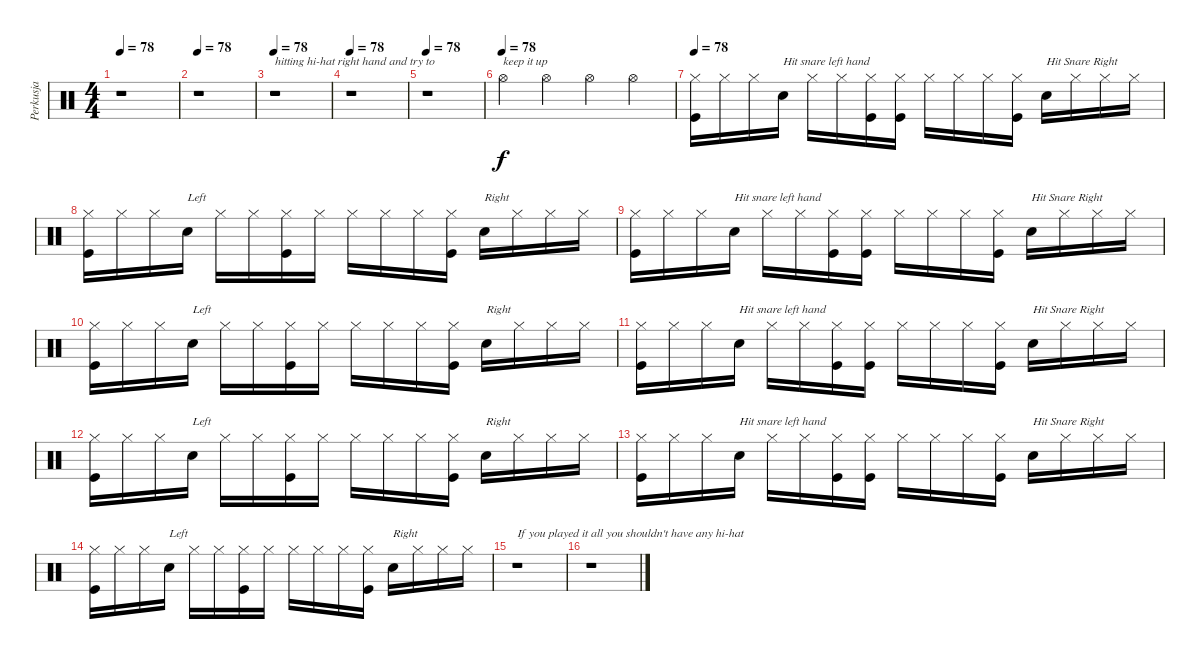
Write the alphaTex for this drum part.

\track ("Perkusja" "Perkusja") {instrument percussion}
\staff {score}
\articulation defaults
\ts (4 4)
\tempo 78
\clef neutral
\ks c
r.1{dy f} |
\tempo 78
r.1 |
\tempo 78
r.1{txt "hitting hi-hat right hand and try to "} |
\tempo 78
r.1 |
\tempo 78
r.1 |
\tempo (78)
"Hi-Hat (open)".4{txt "keep it up"} "Hi-Hat (open)".4 "Hi-Hat (open)".4 "Hi-Hat (open)".4 |
\tempo 78
("Hi-Hat (closed)" "Kick (hit)").16 "Hi-Hat (closed)".16 "Hi-Hat (closed)".16 "Electric Snare (hit)".16{txt "Hit snare left hand"} "Hi-Hat (closed)".16 "Hi-Hat (closed)".16 ("Hi-Hat (closed)" "Kick (hit)").16 ("Hi-Hat (closed)" "Kick (hit)").16 "Hi-Hat (closed)".16 "Hi-Hat (closed)".16 "Hi-Hat (closed)".16 ("Hi-Hat (closed)" "Kick (hit)").16 "Electric Snare (hit)".16{txt "Hit Snare Right"} "Hi-Hat (closed)".16 "Hi-Hat (closed)".16 "Hi-Hat (closed)".16 |
("Hi-Hat (closed)" "Kick (hit)").16 "Hi-Hat (closed)".16 "Hi-Hat (closed)".16 "Electric Snare (hit)".16{txt "Left"} "Hi-Hat (closed)".16 "Hi-Hat (closed)".16 ("Hi-Hat (closed)" "Kick (hit)").16 "Hi-Hat (closed)".16 "Hi-Hat (closed)".16 "Hi-Hat (closed)".16 "Hi-Hat (closed)".16 ("Hi-Hat (closed)" "Kick (hit)").16 "Electric Snare (hit)".16{txt "Right"} "Hi-Hat (closed)".16 "Hi-Hat (closed)".16 "Hi-Hat (closed)".16 |
("Hi-Hat (closed)" "Kick (hit)").16 "Hi-Hat (closed)".16 "Hi-Hat (closed)".16 "Electric Snare (hit)".16{txt "Hit snare left hand"} "Hi-Hat (closed)".16 "Hi-Hat (closed)".16 ("Hi-Hat (closed)" "Kick (hit)").16 ("Hi-Hat (closed)" "Kick (hit)").16 "Hi-Hat (closed)".16 "Hi-Hat (closed)".16 "Hi-Hat (closed)".16 ("Hi-Hat (closed)" "Kick (hit)").16 "Electric Snare (hit)".16{txt "Hit Snare Right"} "Hi-Hat (closed)".16 "Hi-Hat (closed)".16 "Hi-Hat (closed)".16 |
("Hi-Hat (closed)" "Kick (hit)").16 "Hi-Hat (closed)".16 "Hi-Hat (closed)".16 "Electric Snare (hit)".16{txt "Left"} "Hi-Hat (closed)".16 "Hi-Hat (closed)".16 ("Hi-Hat (closed)" "Kick (hit)").16 "Hi-Hat (closed)".16 "Hi-Hat (closed)".16 "Hi-Hat (closed)".16 "Hi-Hat (closed)".16 ("Hi-Hat (closed)" "Kick (hit)").16 "Electric Snare (hit)".16{txt "Right"} "Hi-Hat (closed)".16 "Hi-Hat (closed)".16 "Hi-Hat (closed)".16 |
("Hi-Hat (closed)" "Kick (hit)").16 "Hi-Hat (closed)".16 "Hi-Hat (closed)".16 "Electric Snare (hit)".16{txt "Hit snare left hand"} "Hi-Hat (closed)".16 "Hi-Hat (closed)".16 ("Hi-Hat (closed)" "Kick (hit)").16 ("Hi-Hat (closed)" "Kick (hit)").16 "Hi-Hat (closed)".16 "Hi-Hat (closed)".16 "Hi-Hat (closed)".16 ("Hi-Hat (closed)" "Kick (hit)").16 "Electric Snare (hit)".16{txt "Hit Snare Right"} "Hi-Hat (closed)".16 "Hi-Hat (closed)".16 "Hi-Hat (closed)".16 |
("Hi-Hat (closed)" "Kick (hit)").16 "Hi-Hat (closed)".16 "Hi-Hat (closed)".16 "Electric Snare (hit)".16{txt "Left"} "Hi-Hat (closed)".16 "Hi-Hat (closed)".16 ("Hi-Hat (closed)" "Kick (hit)").16 "Hi-Hat (closed)".16 "Hi-Hat (closed)".16 "Hi-Hat (closed)".16 "Hi-Hat (closed)".16 ("Hi-Hat (closed)" "Kick (hit)").16 "Electric Snare (hit)".16{txt "Right"} "Hi-Hat (closed)".16 "Hi-Hat (closed)".16 "Hi-Hat (closed)".16 |
("Hi-Hat (closed)" "Kick (hit)").16 "Hi-Hat (closed)".16 "Hi-Hat (closed)".16 "Electric Snare (hit)".16{txt "Hit snare left hand"} "Hi-Hat (closed)".16 "Hi-Hat (closed)".16 ("Hi-Hat (closed)" "Kick (hit)").16 ("Hi-Hat (closed)" "Kick (hit)").16 "Hi-Hat (closed)".16 "Hi-Hat (closed)".16 "Hi-Hat (closed)".16 ("Hi-Hat (closed)" "Kick (hit)").16 "Electric Snare (hit)".16{txt "Hit Snare Right"} "Hi-Hat (closed)".16 "Hi-Hat (closed)".16 "Hi-Hat (closed)".16 |
("Hi-Hat (closed)" "Kick (hit)").16 "Hi-Hat (closed)".16 "Hi-Hat (closed)".16 "Electric Snare (hit)".16{txt "Left"} "Hi-Hat (closed)".16 "Hi-Hat (closed)".16 ("Hi-Hat (closed)" "Kick (hit)").16 "Hi-Hat (closed)".16 "Hi-Hat (closed)".16 "Hi-Hat (closed)".16 "Hi-Hat (closed)".16 ("Hi-Hat (closed)" "Kick (hit)").16 "Electric Snare (hit)".16{txt "Right"} "Hi-Hat (closed)".16 "Hi-Hat (closed)".16 "Hi-Hat (closed)".16 |
r.1{txt "If you played it all you shouldn't have any hi-hat"} |
r.1
